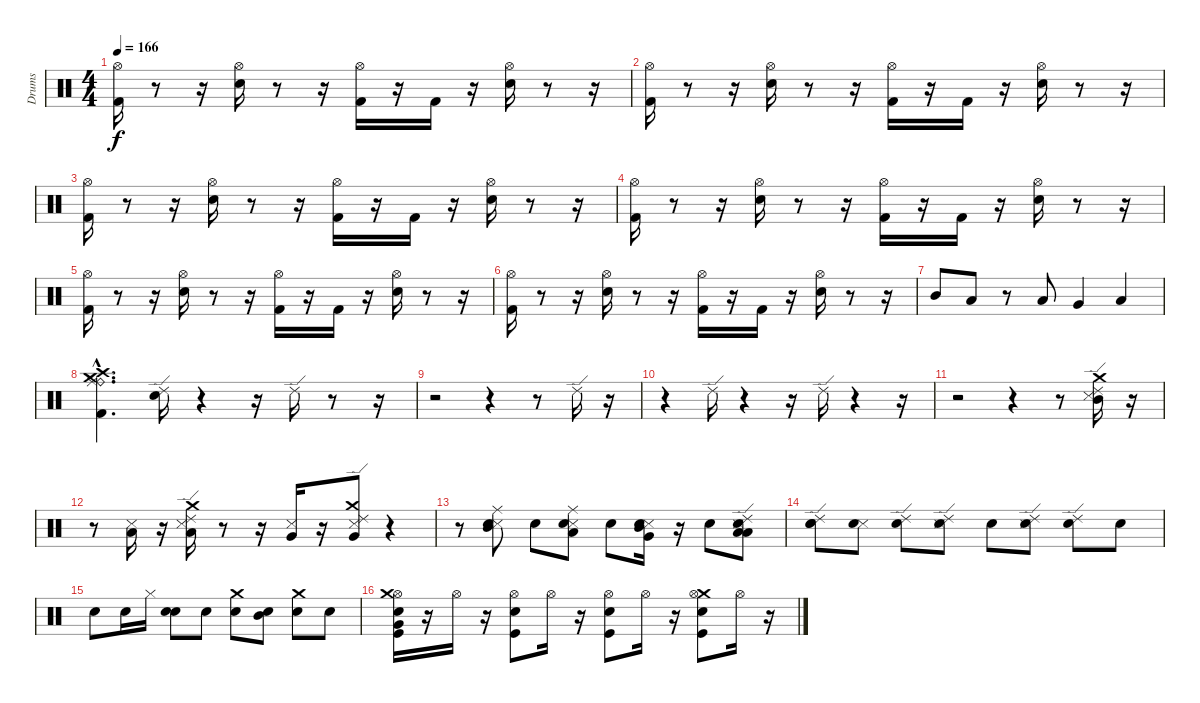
\track ("Drums" "Drums") {instrument percussion}
\staff {score}
\articulation defaults
\ts (4 4)
\tempo 166
\clef neutral
\ks c
("Hi-Hat (open)" "Kick (hit) 2").16{dy f} r.8 r.16 ("Snare (hit) 2" "Hi-Hat (open)").16 r.8 r.16 ("Kick (hit) 2" "Hi-Hat (open)").16 r.16 "Kick (hit) 2".16 r.16 ("Hi-Hat (open)" "Snare (hit) 2").16 r.8 r.16 |
("Hi-Hat (open)" "Kick (hit) 2").16 r.8 r.16 ("Snare (hit) 2" "Hi-Hat (open)").16 r.8 r.16 ("Kick (hit) 2" "Hi-Hat (open)").16 r.16 "Kick (hit) 2".16 r.16 ("Hi-Hat (open)" "Snare (hit) 2").16 r.8 r.16 |
("Hi-Hat (open)" "Kick (hit) 2").16 r.8 r.16 ("Snare (hit) 2" "Hi-Hat (open)").16 r.8 r.16 ("Kick (hit) 2" "Hi-Hat (open)").16 r.16 "Kick (hit) 2".16 r.16 ("Hi-Hat (open)" "Snare (hit) 2").16 r.8 r.16 |
("Hi-Hat (open)" "Kick (hit) 2").16 r.8 r.16 ("Snare (hit) 2" "Hi-Hat (open)").16 r.8 r.16 ("Kick (hit) 2" "Hi-Hat (open)").16 r.16 "Kick (hit) 2".16 r.16 ("Hi-Hat (open)" "Snare (hit) 2").16 r.8 r.16 |
("Hi-Hat (open)" "Kick (hit) 2").16 r.8 r.16 ("Snare (hit) 2" "Hi-Hat (open)").16 r.8 r.16 ("Kick (hit) 2" "Hi-Hat (open)").16 r.16 "Kick (hit) 2".16 r.16 ("Hi-Hat (open)" "Snare (hit) 2").16 r.8 r.16 |
("Hi-Hat (open)" "Kick (hit) 2").16 r.8 r.16 ("Snare (hit) 2" "Hi-Hat (open)").16 r.8 r.16 ("Kick (hit) 2" "Hi-Hat (open)").16 r.16 "Kick (hit) 2".16 r.16 ("Hi-Hat (open)" "Snare (hit) 2").16 r.8 r.16 |
"Mid Tom (hit)".8 "Low Tom (hit)".8 r.8 "Low Tom (hit)".8 "Very Low Tom (hit)".4 "Low Floor Tom (hit)".4 |
("Ride (bell)"{hac} "Crash high (hit)"{hac} "Ride (middle)"{hac} "Crash medium (hit)"{hac} "Kick (hit) 2"{hac}).4{d} ("Snare (hit)" "Ride (edge) 2").16 r.4 r.16 "Ride (edge) 2".16 r.8 r.16 |
r.2 r.4 r.8 "Ride (edge) 2".16 r.16 |
r.4 "Ride (edge) 2".16 r.4 r.16 "Ride (edge) 2".16 r.4 r.16 |
r.2 r.4 r.8 ("Ride (edge) 2" "Mid Tom (hit)" "Crash medium (hit)" "Metronome (hit)").16 r.16 |
r.8 ("Metronome (hit)" "Low Tom (hit)").16 r.16 ("Crash medium (hit)" "Ride (edge) 2" "Low Tom (hit)" "Metronome (hit)").16 r.8 r.16 ("Metronome (hit)" "Very Low Tom (hit)").16 r.16 ("Metronome (hit)" "Ride (edge) 2" "Crash medium (hit)" "Very Low Tom (hit)").8 r.4 |
r.8 ("Mid Tom (hit)" "Metronome (hit)" "Ride (middle)" "Snare (hit) 2").8 "Snare (hit) 2".8 ("Metronome (hit)" "Ride (middle)" "Low Tom (hit)" "Snare (hit) 2").8 "Snare (hit) 2".8 ("Metronome (hit)" "Very Low Tom (hit)" "Snare (hit) 2" "Mid Tom (hit)").16 r.16 "Snare (hit) 2".8 ("Ride (edge) 2" "Metronome (hit)" "Low Floor Tom (hit)" "Snare (hit) 2" "Low Tom (hit)").8 |
("Snare (hit)" "Ride (edge) 2" "Snare (hit) 2").8 ("Metronome (hit)" "Snare (hit) 2").8 ("Ride (edge) 2" "Snare (hit) 2").8 ("Ride (edge) 2" "Metronome (hit)" "Snare (hit) 2").8 "Snare (hit) 2".8 ("Ride (edge) 2" "Metronome (hit)" "Snare (hit) 2").8 ("Ride (edge) 2" "Snare (hit) 2").8 "Snare (hit) 2".8 |
"Snare (hit) 2".8 "Snare (hit) 2".16 "Hi-Hat (closed)".16 ("Snare (hit)" "Snare (hit) 2").8 "Snare (hit) 2".8 ("Crash medium (hit)" "Snare (hit) 2").8 ("Mid Tom (hit)" "Snare (hit) 2").8 ("Crash medium (hit)" "Snare (hit) 2").8 "Snare (hit) 2".8 |
("Kick (hit)" "Hi-Hat (open)" "Electric Snare (hit)" "Very Low Tom (hit)" "Crash medium (hit)").16 r.16 "Hi-Hat (open)".16 r.16 ("Kick (hit)" "Hi-Hat (open)" "Electric Snare (hit)").8 "Hi-Hat (open)".16 r.16 ("Kick (hit)" "Hi-Hat (open)" "Electric Snare (hit)").8 "Hi-Hat (open)".16 r.16 ("Kick (hit)" "Crash medium (hit)" "Hi-Hat (open)" "Electric Snare (hit)").8 "Hi-Hat (open)".16 r.16
